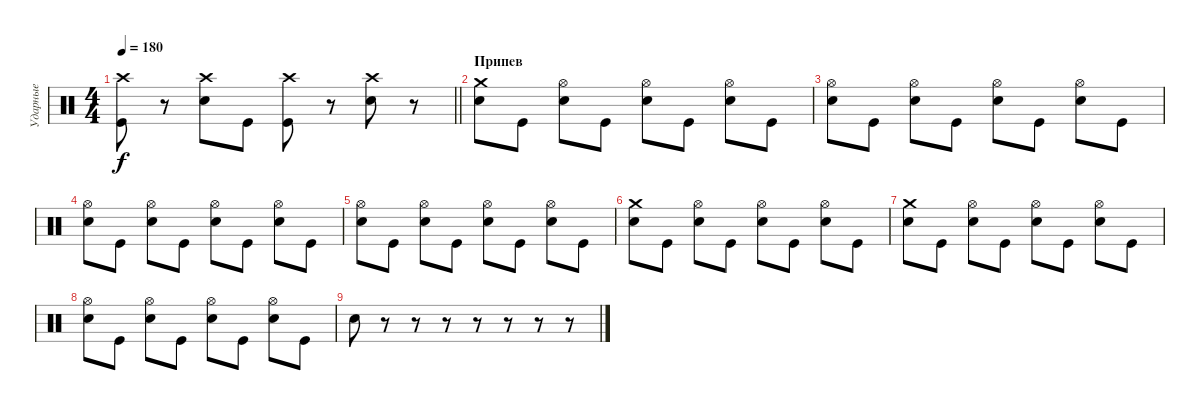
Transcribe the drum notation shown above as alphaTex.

\track ("Ударные" "Ударные") {instrument percussion}
\staff {score}
\articulation defaults
\ts (4 4)
\tempo 180
\clef neutral
\barLineRight lightlight
\ks c
("Crash high (hit)" "Kick (hit)").8{dy f} r.8 ("Crash high (hit)" "Electric Snare (hit)").8 "Kick (hit)".8 ("Crash high (hit)" "Kick (hit)").8 r.8 ("Crash high (hit)" "Electric Snare (hit)").8 r.8 |
\section ("" "Припев")
("Crash medium (hit)" "Electric Snare (hit)").8 "Kick (hit)".8 ("Hi-Hat (open)" "Electric Snare (hit)").8 "Kick (hit)".8 ("Hi-Hat (open)" "Electric Snare (hit)").8 "Kick (hit)".8 ("Hi-Hat (open)" "Electric Snare (hit)").8 "Kick (hit)".8 |
("Hi-Hat (open)" "Electric Snare (hit)").8 "Kick (hit)".8 ("Hi-Hat (open)" "Electric Snare (hit)").8 "Kick (hit)".8 ("Hi-Hat (open)" "Electric Snare (hit)").8 "Kick (hit)".8 ("Hi-Hat (open)" "Electric Snare (hit)").8 "Kick (hit)".8 |
("Hi-Hat (open)" "Electric Snare (hit)").8 "Kick (hit)".8 ("Hi-Hat (open)" "Electric Snare (hit)").8 "Kick (hit)".8 ("Hi-Hat (open)" "Electric Snare (hit)").8 "Kick (hit)".8 ("Hi-Hat (open)" "Electric Snare (hit)").8 "Kick (hit)".8 |
("Hi-Hat (open)" "Electric Snare (hit)").8 "Kick (hit)".8 ("Hi-Hat (open)" "Electric Snare (hit)").8 "Kick (hit)".8 ("Hi-Hat (open)" "Electric Snare (hit)").8 "Kick (hit)".8 ("Hi-Hat (open)" "Electric Snare (hit)").8 "Kick (hit)".8 |
("Crash medium (hit)" "Electric Snare (hit)").8 "Kick (hit)".8 ("Hi-Hat (open)" "Electric Snare (hit)").8 "Kick (hit)".8 ("Hi-Hat (open)" "Electric Snare (hit)").8 "Kick (hit)".8 ("Hi-Hat (open)" "Electric Snare (hit)").8 "Kick (hit)".8 |
("Crash medium (hit)" "Electric Snare (hit)").8 "Kick (hit)".8 ("Hi-Hat (open)" "Electric Snare (hit)").8 "Kick (hit)".8 ("Hi-Hat (open)" "Electric Snare (hit)").8 "Kick (hit)".8 ("Hi-Hat (open)" "Electric Snare (hit)").8 "Kick (hit)".8 |
("Hi-Hat (open)" "Electric Snare (hit)").8 "Kick (hit)".8 ("Hi-Hat (open)" "Electric Snare (hit)").8 "Kick (hit)".8 ("Hi-Hat (open)" "Electric Snare (hit)").8 "Kick (hit)".8 ("Hi-Hat (open)" "Electric Snare (hit)").8 "Kick (hit)".8 |
"Electric Snare (hit)".8 r.8 r.8 r.8 r.8 r.8 r.8 r.8
